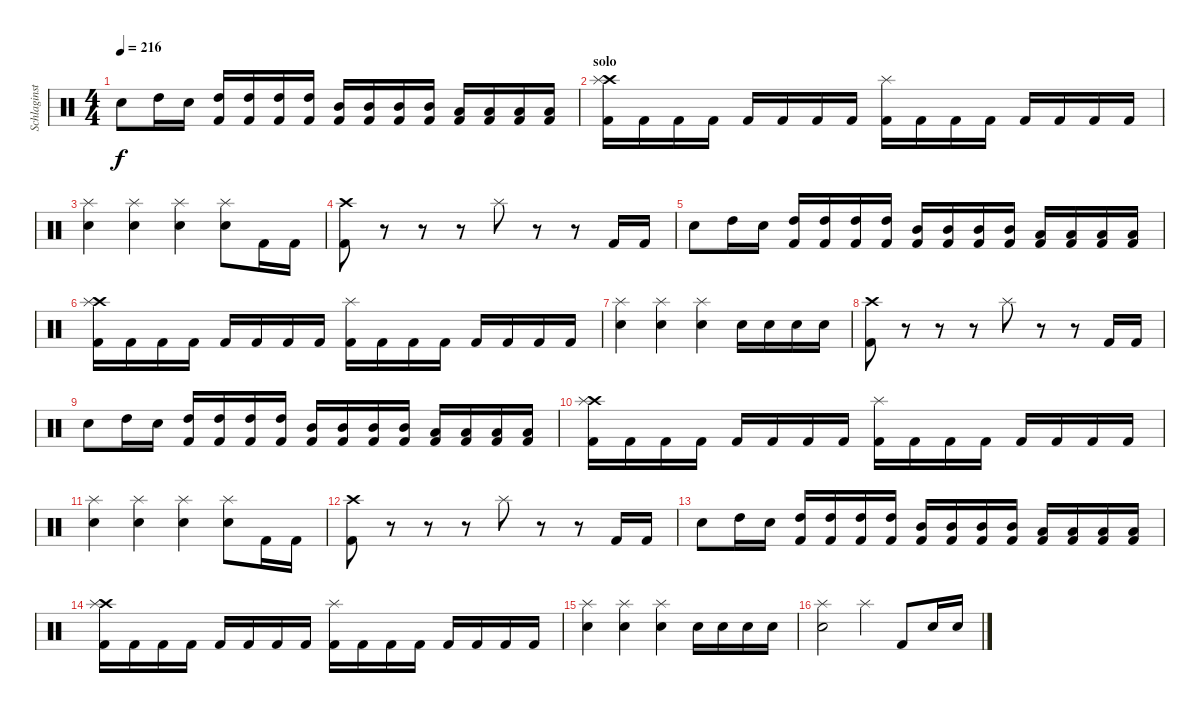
\track ("Schlaginstrumente - Auswahl" "Schlaginst") {instrument percussion}
\staff {score}
\articulation defaults
\ts (4 4)
\tempo 216
\clef neutral
\ks c "Electric Snare (hit)".8{dy f} "High Tom (hit)".16 "Electric Snare (hit)".16
("High Tom (hit)" "Kick (hit) 2").16 ("High Tom (hit)" "Kick (hit) 2").16 ("High Tom (hit)" "Kick (hit) 2").16 ("High Tom (hit)" "Kick (hit) 2").16 ("Mid Tom (hit)" "Kick (hit) 2").16 ("Mid Tom (hit)" "Kick (hit) 2").16 ("Mid Tom (hit)" "Kick (hit) 2").16 ("Mid Tom (hit)" "Kick (hit) 2").16 ("Low Tom (hit)" "Kick (hit) 2").16 ("Low Tom (hit)" "Kick (hit) 2").16 ("Low Tom (hit)" "Kick (hit) 2").16 ("Low Tom (hit)" "Kick (hit) 2").16 |
\section ("" "solo")
("Crash high (hit)" "Splash (hit)" "Kick (hit) 2").16 "Kick (hit) 2".16 "Kick (hit) 2".16 "Kick (hit) 2".16 "Kick (hit) 2".16 "Kick (hit) 2".16 "Kick (hit) 2".16 "Kick (hit) 2".16 ("Splash (hit)" "Kick (hit) 2").16 "Kick (hit) 2".16 "Kick (hit) 2".16 "Kick (hit) 2".16 "Kick (hit) 2".16 "Kick (hit) 2".16 "Kick (hit) 2".16 "Kick (hit) 2".16 |
("Electric Snare (hit)" "Splash (hit)").4 ("Electric Snare (hit)" "Splash (hit)").4 ("Electric Snare (hit)" "Splash (hit)").4 ("Electric Snare (hit)" "Splash (hit)").8 "Kick (hit) 2".16 "Kick (hit) 2".16 |
("Crash high (hit)" "Kick (hit) 2").8 r.8 r.8 r.8 "Splash (hit)".8 r.8 r.8 "Kick (hit) 2".16 "Kick (hit) 2".16 |
"Electric Snare (hit)".8 "High Tom (hit)".16 "Electric Snare (hit)".16 ("High Tom (hit)" "Kick (hit) 2").16 ("High Tom (hit)" "Kick (hit) 2").16 ("High Tom (hit)" "Kick (hit) 2").16 ("High Tom (hit)" "Kick (hit) 2").16 ("Mid Tom (hit)" "Kick (hit) 2").16 ("Mid Tom (hit)" "Kick (hit) 2").16 ("Mid Tom (hit)" "Kick (hit) 2").16 ("Mid Tom (hit)" "Kick (hit) 2").16 ("Low Tom (hit)" "Kick (hit) 2").16 ("Low Tom (hit)" "Kick (hit) 2").16 ("Low Tom (hit)" "Kick (hit) 2").16 ("Low Tom (hit)" "Kick (hit) 2").16 |
("Crash high (hit)" "Splash (hit)" "Kick (hit) 2").16 "Kick (hit) 2".16 "Kick (hit) 2".16 "Kick (hit) 2".16 "Kick (hit) 2".16 "Kick (hit) 2".16 "Kick (hit) 2".16 "Kick (hit) 2".16 ("Splash (hit)" "Kick (hit) 2").16 "Kick (hit) 2".16 "Kick (hit) 2".16 "Kick (hit) 2".16 "Kick (hit) 2".16 "Kick (hit) 2".16 "Kick (hit) 2".16 "Kick (hit) 2".16 |
("Electric Snare (hit)" "Splash (hit)").4 ("Electric Snare (hit)" "Splash (hit)").4 ("Electric Snare (hit)" "Splash (hit)").4 "Electric Snare (hit)".16 "Electric Snare (hit)".16 "Electric Snare (hit)".16 "Electric Snare (hit)".16 |
("Crash high (hit)" "Kick (hit) 2").8 r.8 r.8 r.8 "Splash (hit)".8 r.8 r.8 "Kick (hit) 2".16 "Kick (hit) 2".16 |
"Electric Snare (hit)".8 "High Tom (hit)".16 "Electric Snare (hit)".16 ("High Tom (hit)" "Kick (hit) 2").16 ("High Tom (hit)" "Kick (hit) 2").16 ("High Tom (hit)" "Kick (hit) 2").16 ("High Tom (hit)" "Kick (hit) 2").16 ("Mid Tom (hit)" "Kick (hit) 2").16 ("Mid Tom (hit)" "Kick (hit) 2").16 ("Mid Tom (hit)" "Kick (hit) 2").16 ("Mid Tom (hit)" "Kick (hit) 2").16 ("Low Tom (hit)" "Kick (hit) 2").16 ("Low Tom (hit)" "Kick (hit) 2").16 ("Low Tom (hit)" "Kick (hit) 2").16 ("Low Tom (hit)" "Kick (hit) 2").16 |
("Crash high (hit)" "Splash (hit)" "Kick (hit) 2").16 "Kick (hit) 2".16 "Kick (hit) 2".16 "Kick (hit) 2".16 "Kick (hit) 2".16 "Kick (hit) 2".16 "Kick (hit) 2".16 "Kick (hit) 2".16 ("Splash (hit)" "Kick (hit) 2").16 "Kick (hit) 2".16 "Kick (hit) 2".16 "Kick (hit) 2".16 "Kick (hit) 2".16 "Kick (hit) 2".16 "Kick (hit) 2".16 "Kick (hit) 2".16 |
("Electric Snare (hit)" "Splash (hit)").4 ("Electric Snare (hit)" "Splash (hit)").4 ("Electric Snare (hit)" "Splash (hit)").4 ("Electric Snare (hit)" "Splash (hit)").8 "Kick (hit) 2".16 "Kick (hit) 2".16 |
("Crash high (hit)" "Kick (hit) 2").8 r.8 r.8 r.8 "Splash (hit)".8 r.8 r.8 "Kick (hit) 2".16 "Kick (hit) 2".16 |
"Electric Snare (hit)".8 "High Tom (hit)".16 "Electric Snare (hit)".16 ("High Tom (hit)" "Kick (hit) 2").16 ("High Tom (hit)" "Kick (hit) 2").16 ("High Tom (hit)" "Kick (hit) 2").16 ("High Tom (hit)" "Kick (hit) 2").16 ("Mid Tom (hit)" "Kick (hit) 2").16 ("Mid Tom (hit)" "Kick (hit) 2").16 ("Mid Tom (hit)" "Kick (hit) 2").16 ("Mid Tom (hit)" "Kick (hit) 2").16 ("Low Tom (hit)" "Kick (hit) 2").16 ("Low Tom (hit)" "Kick (hit) 2").16 ("Low Tom (hit)" "Kick (hit) 2").16 ("Low Tom (hit)" "Kick (hit) 2").16 |
("Crash high (hit)" "Splash (hit)" "Kick (hit) 2").16 "Kick (hit) 2".16 "Kick (hit) 2".16 "Kick (hit) 2".16 "Kick (hit) 2".16 "Kick (hit) 2".16 "Kick (hit) 2".16 "Kick (hit) 2".16 ("Splash (hit)" "Kick (hit) 2").16 "Kick (hit) 2".16 "Kick (hit) 2".16 "Kick (hit) 2".16 "Kick (hit) 2".16 "Kick (hit) 2".16 "Kick (hit) 2".16 "Kick (hit) 2".16 |
("Electric Snare (hit)" "Splash (hit)").4 ("Electric Snare (hit)" "Splash (hit)").4 ("Electric Snare (hit)" "Splash (hit)").4 "Electric Snare (hit)".16 "Electric Snare (hit)".16 "Electric Snare (hit)".16 "Electric Snare (hit)".16 |
("Electric Snare (hit)" "Splash (hit)").2 "Splash (hit)".4 "Kick (hit) 2".8 "Electric Snare (hit)".16 "Electric Snare (hit)".16
